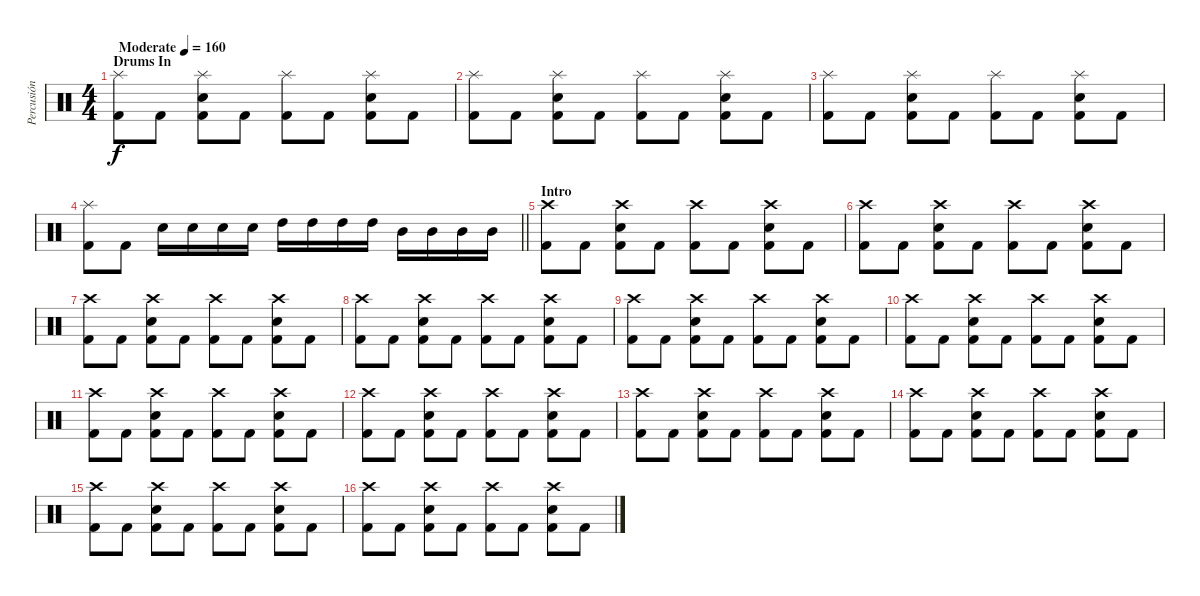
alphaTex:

\track ("Percusión" "Percusión") {instrument percussion}
\staff {score}
\articulation defaults
\ts (4 4)
\section ("" "Drums In")
\tempo (160 "Moderate")
\clef neutral
\ks c
("Splash (hit)" "Kick (hit) 2").8{dy f volume 0} "Kick (hit) 2".8 ("Splash (hit)" "Electric Snare (hit)" "Kick (hit) 2").8{volume 16} "Kick (hit) 2".8 ("Splash (hit)" "Kick (hit) 2").8 "Kick (hit) 2".8 ("Splash (hit)" "Electric Snare (hit)" "Kick (hit) 2").8 "Kick (hit) 2".8 |
("Splash (hit)" "Kick (hit) 2").8 "Kick (hit) 2".8 ("Splash (hit)" "Electric Snare (hit)" "Kick (hit) 2").8 "Kick (hit) 2".8 ("Splash (hit)" "Kick (hit) 2").8 "Kick (hit) 2".8 ("Splash (hit)" "Electric Snare (hit)" "Kick (hit) 2").8 "Kick (hit) 2".8 |
("Splash (hit)" "Kick (hit) 2").8 "Kick (hit) 2".8 ("Splash (hit)" "Electric Snare (hit)" "Kick (hit) 2").8 "Kick (hit) 2".8 ("Splash (hit)" "Kick (hit) 2").8 "Kick (hit) 2".8 ("Splash (hit)" "Electric Snare (hit)" "Kick (hit) 2").8 "Kick (hit) 2".8 |
\barLineRight lightlight
("Splash (hit)" "Kick (hit) 2").8 "Kick (hit) 2".8 "Electric Snare (hit)".16 "Electric Snare (hit)".16 "Electric Snare (hit)".16 "Electric Snare (hit)".16 "High Tom (hit)".16 "High Tom (hit)".16 "High Tom (hit)".16 "High Tom (hit)".16 "Mid Tom (hit)".16 "Mid Tom (hit)".16 "Mid Tom (hit)".16 "Mid Tom (hit)".16 |
\section ("" "Intro")
("Crash high (hit)" "Kick (hit) 2").8 "Kick (hit) 2".8 ("Crash high (hit)" "Electric Snare (hit)" "Kick (hit) 2").8 "Kick (hit) 2".8 ("Crash high (hit)" "Kick (hit) 2").8 "Kick (hit) 2".8 ("Crash high (hit)" "Electric Snare (hit)" "Kick (hit) 2").8 "Kick (hit) 2".8 |
("Crash high (hit)" "Kick (hit) 2").8 "Kick (hit) 2".8 ("Crash high (hit)" "Electric Snare (hit)" "Kick (hit) 2").8 "Kick (hit) 2".8 ("Crash high (hit)" "Kick (hit) 2").8 "Kick (hit) 2".8 ("Crash high (hit)" "Electric Snare (hit)" "Kick (hit) 2").8 "Kick (hit) 2".8 |
("Crash high (hit)" "Kick (hit) 2").8 "Kick (hit) 2".8 ("Crash high (hit)" "Electric Snare (hit)" "Kick (hit) 2").8 "Kick (hit) 2".8 ("Crash high (hit)" "Kick (hit) 2").8 "Kick (hit) 2".8 ("Crash high (hit)" "Electric Snare (hit)" "Kick (hit) 2").8 "Kick (hit) 2".8 |
("Crash high (hit)" "Kick (hit) 2").8 "Kick (hit) 2".8 ("Crash high (hit)" "Electric Snare (hit)" "Kick (hit) 2").8 "Kick (hit) 2".8 ("Crash high (hit)" "Kick (hit) 2").8 "Kick (hit) 2".8 ("Crash high (hit)" "Electric Snare (hit)" "Kick (hit) 2").8 "Kick (hit) 2".8 |
("Crash high (hit)" "Kick (hit) 2").8 "Kick (hit) 2".8 ("Crash high (hit)" "Electric Snare (hit)" "Kick (hit) 2").8 "Kick (hit) 2".8 ("Crash high (hit)" "Kick (hit) 2").8 "Kick (hit) 2".8 ("Crash high (hit)" "Electric Snare (hit)" "Kick (hit) 2").8 "Kick (hit) 2".8 |
("Crash high (hit)" "Kick (hit) 2").8 "Kick (hit) 2".8 ("Crash high (hit)" "Electric Snare (hit)" "Kick (hit) 2").8 "Kick (hit) 2".8 ("Crash high (hit)" "Kick (hit) 2").8 "Kick (hit) 2".8 ("Crash high (hit)" "Electric Snare (hit)" "Kick (hit) 2").8 "Kick (hit) 2".8 |
("Crash high (hit)" "Kick (hit) 2").8 "Kick (hit) 2".8 ("Crash high (hit)" "Electric Snare (hit)" "Kick (hit) 2").8 "Kick (hit) 2".8 ("Crash high (hit)" "Kick (hit) 2").8 "Kick (hit) 2".8 ("Crash high (hit)" "Electric Snare (hit)" "Kick (hit) 2").8 "Kick (hit) 2".8 |
("Crash high (hit)" "Kick (hit) 2").8 "Kick (hit) 2".8 ("Crash high (hit)" "Electric Snare (hit)" "Kick (hit) 2").8 "Kick (hit) 2".8 ("Crash high (hit)" "Kick (hit) 2").8 "Kick (hit) 2".8 ("Crash high (hit)" "Electric Snare (hit)" "Kick (hit) 2").8 "Kick (hit) 2".8 |
("Crash high (hit)" "Kick (hit) 2").8 "Kick (hit) 2".8 ("Crash high (hit)" "Electric Snare (hit)" "Kick (hit) 2").8 "Kick (hit) 2".8 ("Crash high (hit)" "Kick (hit) 2").8 "Kick (hit) 2".8 ("Crash high (hit)" "Electric Snare (hit)" "Kick (hit) 2").8 "Kick (hit) 2".8 |
("Crash high (hit)" "Kick (hit) 2").8 "Kick (hit) 2".8 ("Crash high (hit)" "Electric Snare (hit)" "Kick (hit) 2").8 "Kick (hit) 2".8 ("Crash high (hit)" "Kick (hit) 2").8 "Kick (hit) 2".8 ("Crash high (hit)" "Electric Snare (hit)" "Kick (hit) 2").8 "Kick (hit) 2".8 |
("Crash high (hit)" "Kick (hit) 2").8 "Kick (hit) 2".8 ("Crash high (hit)" "Electric Snare (hit)" "Kick (hit) 2").8 "Kick (hit) 2".8 ("Crash high (hit)" "Kick (hit) 2").8 "Kick (hit) 2".8 ("Crash high (hit)" "Electric Snare (hit)" "Kick (hit) 2").8 "Kick (hit) 2".8 |
("Crash high (hit)" "Kick (hit) 2").8 "Kick (hit) 2".8 ("Crash high (hit)" "Electric Snare (hit)" "Kick (hit) 2").8 "Kick (hit) 2".8 ("Crash high (hit)" "Kick (hit) 2").8 "Kick (hit) 2".8 ("Crash high (hit)" "Electric Snare (hit)" "Kick (hit) 2").8 "Kick (hit) 2".8
